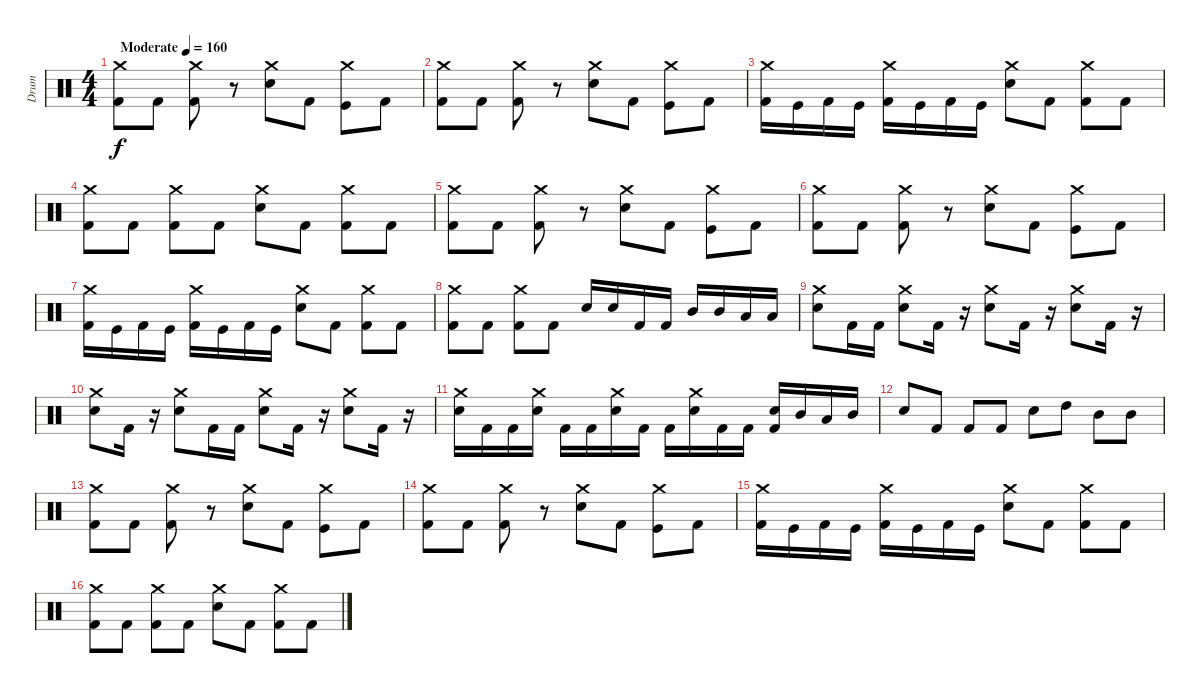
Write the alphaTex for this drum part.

\track ("Drum" "Drum") {instrument percussion}
\staff {score}
\articulation defaults
\ts (4 4)
\tempo (160 "Moderate")
\clef neutral
\ks c
("Crash medium (hit)" "Kick (hit) 2").8{dy f} "Kick (hit) 2".8 ("Kick (hit) 2" "Crash medium (hit)").8 r.8 ("Crash medium (hit)" "Electric Snare (hit)").8 "Kick (hit) 2".8 ("Kick (hit)" "Crash medium (hit)").8 "Kick (hit) 2".8 |
("Crash medium (hit)" "Kick (hit) 2").8 "Kick (hit) 2".8 ("Crash medium (hit)" "Kick (hit) 2").8 r.8 ("Crash medium (hit)" "Electric Snare (hit)").8 "Kick (hit) 2".8 ("Kick (hit)" "Crash medium (hit)").8 "Kick (hit) 2".8 |
("Crash medium (hit)" "Kick (hit) 2").16 "Kick (hit)".16 "Kick (hit) 2".16 "Kick (hit)".16 ("Kick (hit) 2" "Crash medium (hit)").16 "Kick (hit)".16 "Kick (hit) 2".16 "Kick (hit)".16 ("Crash medium (hit)" "Electric Snare (hit)").8 "Kick (hit) 2".8 ("Kick (hit) 2" "Crash medium (hit)").8 "Kick (hit) 2".8 |
("Kick (hit) 2" "Crash medium (hit)").8 "Kick (hit) 2".8 ("Crash medium (hit)" "Kick (hit) 2").8 "Kick (hit) 2".8 ("Crash medium (hit)" "Electric Snare (hit)").8 "Kick (hit) 2".8 ("Kick (hit) 2" "Crash medium (hit)").8 "Kick (hit) 2".8 |
("Kick (hit) 2" "Crash medium (hit)").8 "Kick (hit) 2".8 ("Crash medium (hit)" "Kick (hit) 2").8 r.8 ("Electric Snare (hit)" "Crash medium (hit)").8 "Kick (hit) 2".8 ("Crash medium (hit)" "Kick (hit)").8 "Kick (hit) 2".8 |
("Kick (hit) 2" "Crash medium (hit)").8 "Kick (hit) 2".8 ("Crash medium (hit)" "Kick (hit) 2").8 r.8 ("Crash medium (hit)" "Electric Snare (hit)").8 "Kick (hit) 2".8 ("Crash medium (hit)" "Kick (hit)").8 "Kick (hit) 2".8 |
("Kick (hit) 2" "Crash medium (hit)").16 "Kick (hit)".16 "Kick (hit) 2".16 "Kick (hit)".16 ("Kick (hit) 2" "Crash medium (hit)").16 "Kick (hit)".16 "Kick (hit) 2".16 "Kick (hit)".16 ("Electric Snare (hit)" "Crash medium (hit)").8 "Kick (hit) 2".8 ("Crash medium (hit)" "Kick (hit) 2").8 "Kick (hit) 2".8 |
("Kick (hit) 2" "Crash medium (hit)").8 "Kick (hit) 2".8 ("Crash medium (hit)" "Kick (hit) 2").8 "Kick (hit) 2".8 "Electric Snare (hit)".16 "Electric Snare (hit)".16 "Kick (hit) 2".16 "Kick (hit) 2".16 "Mid Tom (hit)".16 "Mid Tom (hit)".16 "Low Tom (hit)".16 "Low Tom (hit)".16 |
("Crash medium (hit)" "Electric Snare (hit)").8 "Kick (hit) 2".16 "Kick (hit) 2".16 ("Electric Snare (hit)" "Crash medium (hit)").8 "Kick (hit) 2".16 r.16 ("Crash medium (hit)" "Electric Snare (hit)").8 "Kick (hit) 2".16 r.16 ("Crash medium (hit)" "Electric Snare (hit)").8 "Kick (hit) 2".16 r.16 |
("Electric Snare (hit)" "Crash medium (hit)").8 "Kick (hit) 2".16 r.16 ("Electric Snare (hit)" "Crash medium (hit)").8 "Kick (hit) 2".16 "Kick (hit) 2".16 ("Crash medium (hit)" "Electric Snare (hit)").8 "Kick (hit) 2".16 r.16 ("Electric Snare (hit)" "Crash medium (hit)").8 "Kick (hit) 2".16 r.16 |
("Electric Snare (hit)" "Crash medium (hit)").16 "Kick (hit) 2".16 "Kick (hit) 2".16 ("Electric Snare (hit)" "Crash medium (hit)").16 "Kick (hit) 2".16 "Kick (hit) 2".16 ("Crash medium (hit)" "Electric Snare (hit)").16 "Kick (hit) 2".16 "Kick (hit) 2".16 ("Crash medium (hit)" "Electric Snare (hit)").16 "Kick (hit) 2".16 "Kick (hit) 2".16 ("Electric Snare (hit)" "Kick (hit) 2").16 "Mid Tom (hit)".16 "Low Tom (hit)".16 "Mid Tom (hit)".16 |
"Electric Snare (hit)".8 "Kick (hit) 2".8 "Kick (hit) 2".8 "Kick (hit) 2".8 "Electric Snare (hit)".8 "High Tom (hit)".8 "Mid Tom (hit)".8 "Mid Tom (hit)".8 |
("Kick (hit) 2" "Crash medium (hit)").8 "Kick (hit) 2".8 ("Crash medium (hit)" "Kick (hit) 2").8 r.8 ("Crash medium (hit)" "Electric Snare (hit)").8 "Kick (hit) 2".8 ("Kick (hit)" "Crash medium (hit)").8 "Kick (hit) 2".8 |
("Crash medium (hit)" "Kick (hit) 2").8 "Kick (hit) 2".8 ("Crash medium (hit)" "Kick (hit) 2").8 r.8 ("Electric Snare (hit)" "Crash medium (hit)").8 "Kick (hit) 2".8 ("Crash medium (hit)" "Kick (hit)").8 "Kick (hit) 2".8 |
("Kick (hit) 2" "Crash medium (hit)").16 "Kick (hit)".16 "Kick (hit) 2".16 "Kick (hit)".16 ("Kick (hit) 2" "Crash medium (hit)").16 "Kick (hit)".16 "Kick (hit) 2".16 "Kick (hit)".16 ("Electric Snare (hit)" "Crash medium (hit)").8 "Kick (hit) 2".8 ("Crash medium (hit)" "Kick (hit) 2").8 "Kick (hit) 2".8 |
("Crash medium (hit)" "Kick (hit) 2").8 "Kick (hit) 2".8 ("Crash medium (hit)" "Kick (hit) 2").8 "Kick (hit) 2".8 ("Electric Snare (hit)" "Crash medium (hit)").8 "Kick (hit) 2".8 ("Crash medium (hit)" "Kick (hit) 2").8 "Kick (hit) 2".8
